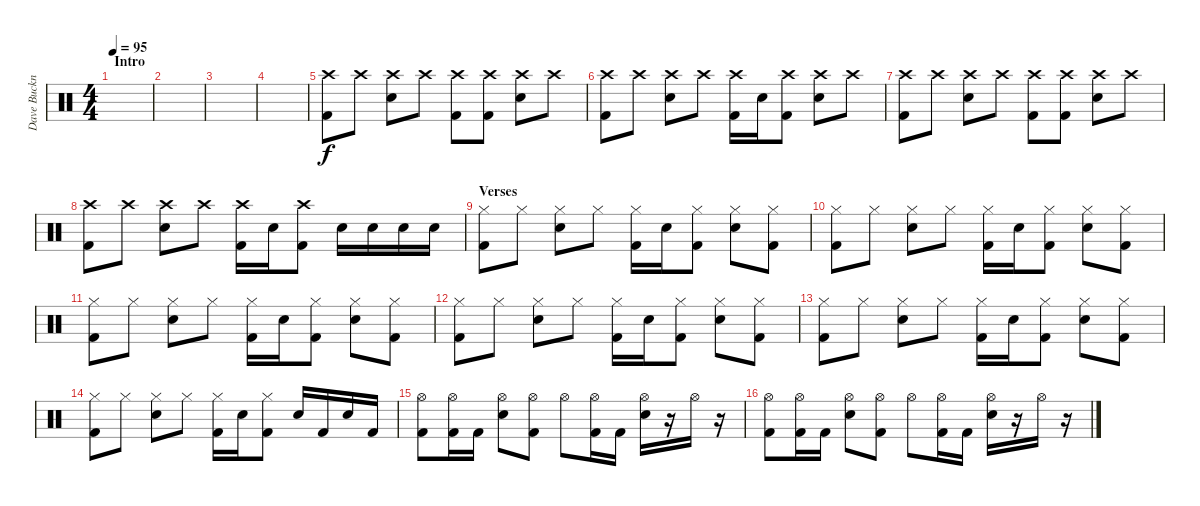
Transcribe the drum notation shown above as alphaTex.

\track ("Dave Buckner " "Dave Buckn") {instrument percussion}
\staff {score}
\articulation defaults
\ts (4 4)
\section ("" "Intro")
\tempo 95
\clef neutral
\ks c
|
|
|
|
("Crash high (hit)" "Kick (hit) 2").8 "Crash high (hit)".8 ("Crash high (hit)" "Snare (hit) 2").8 "Crash high (hit)".8 ("Crash high (hit)" "Kick (hit) 2").8 ("Crash high (hit)" "Kick (hit) 2").8 ("Crash high (hit)" "Snare (hit) 2").8 "Crash high (hit)".8 |
("Crash high (hit)" "Kick (hit) 2").8 "Crash high (hit)".8 ("Crash high (hit)" "Snare (hit) 2").8 "Crash high (hit)".8 ("Crash high (hit)" "Kick (hit) 2").16 "Snare (hit) 2".16 ("Crash high (hit)" "Kick (hit) 2").8 ("Crash high (hit)" "Snare (hit) 2").8 "Crash high (hit)".8 |
("Crash high (hit)" "Kick (hit) 2").8 "Crash high (hit)".8 ("Crash high (hit)" "Snare (hit) 2").8 "Crash high (hit)".8 ("Crash high (hit)" "Kick (hit) 2").8 ("Crash high (hit)" "Kick (hit) 2").8 ("Crash high (hit)" "Snare (hit) 2").8 "Crash high (hit)".8 |
("Crash high (hit)" "Kick (hit) 2").8 "Crash high (hit)".8 ("Crash high (hit)" "Snare (hit) 2").8 "Crash high (hit)".8 ("Crash high (hit)" "Kick (hit) 2").16 "Snare (hit) 2".16 ("Crash high (hit)" "Kick (hit) 2").8 "Snare (hit) 2".16 "Snare (hit) 2".16 "Snare (hit) 2".16 "Snare (hit) 2".16 |
\section ("" "Verses")
("Hi-Hat (closed)" "Kick (hit) 2").8 "Hi-Hat (closed)".8 ("Hi-Hat (closed)" "Snare (hit) 2").8 "Hi-Hat (closed)".8 ("Hi-Hat (closed)" "Kick (hit) 2").16 "Snare (hit) 2".16 ("Hi-Hat (closed)" "Kick (hit) 2").8 ("Hi-Hat (closed)" "Snare (hit) 2").8 ("Hi-Hat (closed)" "Kick (hit) 2").8 |
("Hi-Hat (closed)" "Kick (hit) 2").8 "Hi-Hat (closed)".8 ("Hi-Hat (closed)" "Snare (hit) 2").8 "Hi-Hat (closed)".8 ("Hi-Hat (closed)" "Kick (hit) 2").16 "Snare (hit) 2".16 ("Hi-Hat (closed)" "Kick (hit) 2").8 ("Hi-Hat (closed)" "Snare (hit) 2").8 ("Hi-Hat (closed)" "Kick (hit) 2").8 |
("Hi-Hat (closed)" "Kick (hit) 2").8 "Hi-Hat (closed)".8 ("Hi-Hat (closed)" "Snare (hit) 2").8 "Hi-Hat (closed)".8 ("Hi-Hat (closed)" "Kick (hit) 2").16 "Snare (hit) 2".16 ("Hi-Hat (closed)" "Kick (hit) 2").8 ("Hi-Hat (closed)" "Snare (hit) 2").8 ("Hi-Hat (closed)" "Kick (hit) 2").8 |
("Hi-Hat (closed)" "Kick (hit) 2").8 "Hi-Hat (closed)".8 ("Hi-Hat (closed)" "Snare (hit) 2").8 "Hi-Hat (closed)".8 ("Hi-Hat (closed)" "Kick (hit) 2").16 "Snare (hit) 2".16 ("Hi-Hat (closed)" "Kick (hit) 2").8 ("Hi-Hat (closed)" "Snare (hit) 2").8 ("Hi-Hat (closed)" "Kick (hit) 2").8 |
("Hi-Hat (closed)" "Kick (hit) 2").8 "Hi-Hat (closed)".8 ("Hi-Hat (closed)" "Snare (hit) 2").8 "Hi-Hat (closed)".8 ("Hi-Hat (closed)" "Kick (hit) 2").16 "Snare (hit) 2".16 ("Hi-Hat (closed)" "Kick (hit) 2").8 ("Hi-Hat (closed)" "Snare (hit) 2").8 ("Hi-Hat (closed)" "Kick (hit) 2").8 |
("Hi-Hat (closed)" "Kick (hit) 2").8 "Hi-Hat (closed)".8 ("Hi-Hat (closed)" "Snare (hit) 2").8 "Hi-Hat (closed)".8 ("Hi-Hat (closed)" "Kick (hit) 2").16 "Snare (hit) 2".16 ("Hi-Hat (closed)" "Kick (hit) 2").8 "Snare (hit) 2".16 "Kick (hit) 2".16 "Snare (hit) 2".16 "Kick (hit) 2".16 |
("Hi-Hat (open)" "Kick (hit) 2").8 ("Hi-Hat (open)" "Kick (hit) 2").16 "Kick (hit) 2".16 ("Hi-Hat (open)" "Snare (hit) 2").8 ("Hi-Hat (open)" "Kick (hit) 2").8 "Hi-Hat (open)".8 ("Hi-Hat (open)" "Kick (hit) 2").16 "Kick (hit) 2".16 ("Hi-Hat (open)" "Snare (hit) 2").16 r.16 "Hi-Hat (open)".16 r.16 |
("Hi-Hat (open)" "Kick (hit) 2").8 ("Hi-Hat (open)" "Kick (hit) 2").16 "Kick (hit) 2".16 ("Hi-Hat (open)" "Snare (hit) 2").8 ("Hi-Hat (open)" "Kick (hit) 2").8 "Hi-Hat (open)".8 ("Hi-Hat (open)" "Kick (hit) 2").16 "Kick (hit) 2".16 ("Hi-Hat (open)" "Snare (hit) 2").16 r.16 "Hi-Hat (open)".16 r.16
